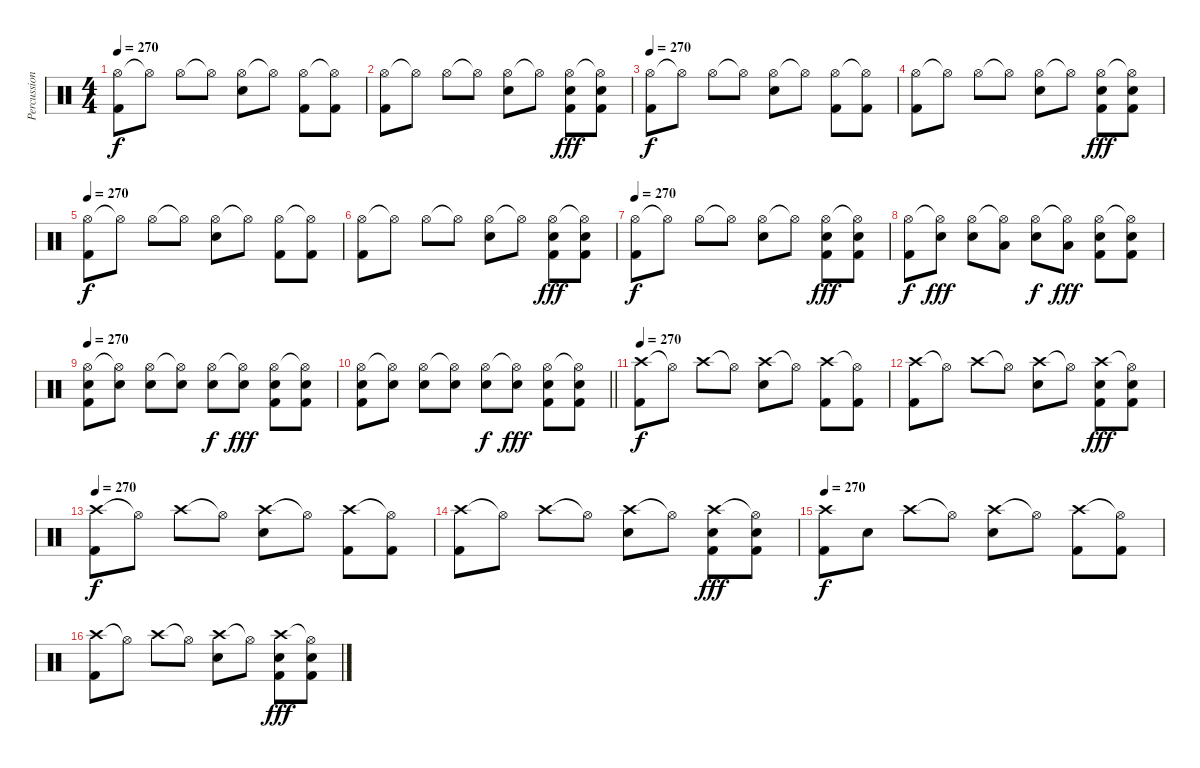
\track ("Percussion" "Percussion") {instrument percussion}
\staff {score}
\articulation defaults
\ts (4 4)
\tempo 270
\clef neutral
\ks c
("Hi-Hat (open)" "Kick (hit) 2").8{dy f} "Hi-Hat (open)"{t}.8 "Hi-Hat (open)".8 "Hi-Hat (open)"{t}.8 ("Hi-Hat (open)" "Electric Snare (hit)").8 "Hi-Hat (open)"{t}.8 ("Hi-Hat (open)" "Kick (hit) 2").8 ("Hi-Hat (open)"{t} "Kick (hit) 2").8 |
("Hi-Hat (open)" "Kick (hit) 2").8 "Hi-Hat (open)"{t}.8 "Hi-Hat (open)".8 "Hi-Hat (open)"{t}.8 ("Hi-Hat (open)" "Electric Snare (hit)").8 "Hi-Hat (open)"{t}.8 ("Hi-Hat (open)" "Electric Snare (hit)" "Kick (hit) 2").8{dy fff} ("Hi-Hat (open)"{t} "Electric Snare (hit)" "Kick (hit) 2").8 |
\tempo 270
("Hi-Hat (open)" "Kick (hit) 2").8{dy f} "Hi-Hat (open)"{t}.8 "Hi-Hat (open)".8 "Hi-Hat (open)"{t}.8 ("Hi-Hat (open)" "Electric Snare (hit)").8 "Hi-Hat (open)"{t}.8 ("Hi-Hat (open)" "Kick (hit) 2").8 ("Hi-Hat (open)"{t} "Kick (hit) 2").8 |
("Hi-Hat (open)" "Kick (hit) 2").8 "Hi-Hat (open)"{t}.8 "Hi-Hat (open)".8 "Hi-Hat (open)"{t}.8 ("Hi-Hat (open)" "Electric Snare (hit)").8 "Hi-Hat (open)"{t}.8 ("Hi-Hat (open)" "Electric Snare (hit)" "Kick (hit) 2").8{dy fff} ("Hi-Hat (open)"{t} "Electric Snare (hit)" "Kick (hit) 2").8 |
\tempo 270
("Hi-Hat (open)" "Kick (hit) 2").8{dy f} "Hi-Hat (open)"{t}.8 "Hi-Hat (open)".8 "Hi-Hat (open)"{t}.8 ("Hi-Hat (open)" "Electric Snare (hit)").8 "Hi-Hat (open)"{t}.8 ("Hi-Hat (open)" "Kick (hit) 2").8 ("Hi-Hat (open)"{t} "Kick (hit) 2").8 |
("Hi-Hat (open)" "Kick (hit) 2").8 "Hi-Hat (open)"{t}.8 "Hi-Hat (open)".8 "Hi-Hat (open)"{t}.8 ("Hi-Hat (open)" "Electric Snare (hit)").8 "Hi-Hat (open)"{t}.8 ("Hi-Hat (open)" "Electric Snare (hit)" "Kick (hit) 2").8{dy fff} ("Hi-Hat (open)"{t} "Electric Snare (hit)" "Kick (hit) 2").8 |
\tempo 270
("Hi-Hat (open)" "Kick (hit) 2").8{dy f} "Hi-Hat (open)"{t}.8 "Hi-Hat (open)".8 "Hi-Hat (open)"{t}.8 ("Hi-Hat (open)" "Electric Snare (hit)").8 "Hi-Hat (open)"{t}.8 ("Hi-Hat (open)" "Electric Snare (hit)" "Kick (hit) 2").8{dy fff} ("Hi-Hat (open)"{t} "Electric Snare (hit)" "Kick (hit) 2").8 |
("Hi-Hat (open)" "Kick (hit) 2").8{dy f} ("Hi-Hat (open)"{t} "Electric Snare (hit)").8{dy fff} ("Hi-Hat (open)" "Electric Snare (hit)").8 ("Hi-Hat (open)"{t} "Low Floor Tom (hit)").8 ("Hi-Hat (open)" "Electric Snare (hit)").8{dy f} ("Hi-Hat (open)"{t} "Low Floor Tom (hit)").8{dy fff} ("Hi-Hat (open)" "Electric Snare (hit)" "Kick (hit) 2").8 ("Hi-Hat (open)"{t} "Electric Snare (hit)" "Kick (hit) 2").8 |
\tempo 270
("Hi-Hat (open)" "Electric Snare (hit)" "Kick (hit) 2").8 ("Hi-Hat (open)"{t} "Electric Snare (hit)").8 ("Hi-Hat (open)" "Electric Snare (hit)").8 ("Hi-Hat (open)"{t} "Electric Snare (hit)").8 ("Hi-Hat (open)" "Electric Snare (hit)").8{dy f} ("Hi-Hat (open)"{t} "Electric Snare (hit)").8{dy fff} ("Hi-Hat (open)" "Electric Snare (hit)" "Kick (hit) 2").8 ("Hi-Hat (open)"{t} "Electric Snare (hit)" "Kick (hit) 2").8 |
\barLineRight lightlight
("Hi-Hat (open)" "Electric Snare (hit)" "Kick (hit) 2").8 ("Hi-Hat (open)"{t} "Electric Snare (hit)").8 ("Hi-Hat (open)" "Electric Snare (hit)").8 ("Hi-Hat (open)"{t} "Electric Snare (hit)").8 ("Hi-Hat (open)" "Electric Snare (hit)").8{dy f} ("Hi-Hat (open)"{t} "Electric Snare (hit)").8{dy fff} ("Hi-Hat (open)" "Electric Snare (hit)" "Kick (hit) 2").8 ("Hi-Hat (open)"{t} "Electric Snare (hit)" "Kick (hit) 2").8 |
\tempo 270
("Crash high (hit)" "Kick (hit) 2").8{dy f} "Hi-Hat (open)"{t}.8 "Crash high (hit)".8 "Hi-Hat (open)"{t}.8 ("Crash high (hit)" "Electric Snare (hit)").8 "Hi-Hat (open)"{t}.8 ("Crash high (hit)" "Kick (hit) 2").8 ("Hi-Hat (open)"{t} "Kick (hit) 2").8 |
("Crash high (hit)" "Kick (hit) 2").8 "Hi-Hat (open)"{t}.8 "Crash high (hit)".8 "Hi-Hat (open)"{t}.8 ("Crash high (hit)" "Electric Snare (hit)").8 "Hi-Hat (open)"{t}.8 ("Crash high (hit)" "Electric Snare (hit)" "Kick (hit) 2").8{dy fff} ("Hi-Hat (open)"{t} "Electric Snare (hit)" "Kick (hit) 2").8 |
\tempo 270
("Crash high (hit)" "Kick (hit) 2").8{dy f} "Hi-Hat (open)"{t}.8 "Crash high (hit)".8 "Hi-Hat (open)"{t}.8 ("Crash high (hit)" "Electric Snare (hit)").8 "Hi-Hat (open)"{t}.8 ("Crash high (hit)" "Kick (hit) 2").8 ("Hi-Hat (open)"{t} "Kick (hit) 2").8 |
("Crash high (hit)" "Kick (hit) 2").8 "Hi-Hat (open)"{t}.8 "Crash high (hit)".8 "Hi-Hat (open)"{t}.8 ("Crash high (hit)" "Electric Snare (hit)").8 "Hi-Hat (open)"{t}.8 ("Crash high (hit)" "Electric Snare (hit)" "Kick (hit) 2").8{dy fff} ("Hi-Hat (open)"{t} "Electric Snare (hit)" "Kick (hit) 2").8 |
\tempo 270
("Crash high (hit)" "Kick (hit) 2").8{dy f} "Snare (hit)".8 "Crash high (hit)".8 "Hi-Hat (open)"{t}.8 ("Crash high (hit)" "Electric Snare (hit)").8 "Hi-Hat (open)"{t}.8 ("Crash high (hit)" "Kick (hit) 2").8 ("Hi-Hat (open)"{t} "Kick (hit) 2").8 |
("Crash high (hit)" "Kick (hit) 2").8 "Hi-Hat (open)"{t}.8 "Crash high (hit)".8 "Hi-Hat (open)"{t}.8 ("Crash high (hit)" "Electric Snare (hit)").8 "Hi-Hat (open)"{t}.8 ("Crash high (hit)" "Electric Snare (hit)" "Kick (hit) 2").8{dy fff} ("Hi-Hat (open)"{t} "Electric Snare (hit)" "Kick (hit) 2").8
